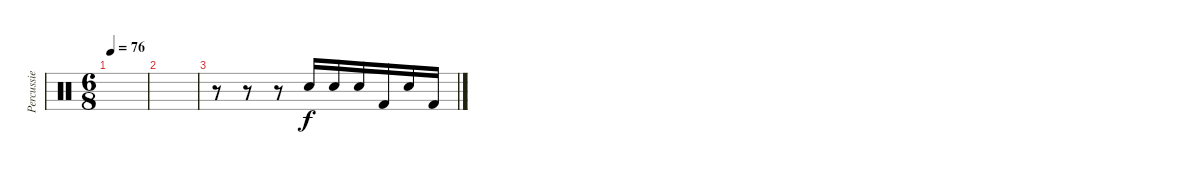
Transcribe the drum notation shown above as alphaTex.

\track ("Percussie" "Percussie") {instrument percussion}
\staff {score}
\articulation defaults
\ts (6 8)
\tempo 76
\clef neutral
\ks c
|
|
r.8 r.8 r.8 "Snare (hit) 2".16 "Snare (hit) 2".16 "Snare (hit) 2".16 "Kick (hit) 2".16 "Snare (hit) 2".16 "Kick (hit) 2".16
